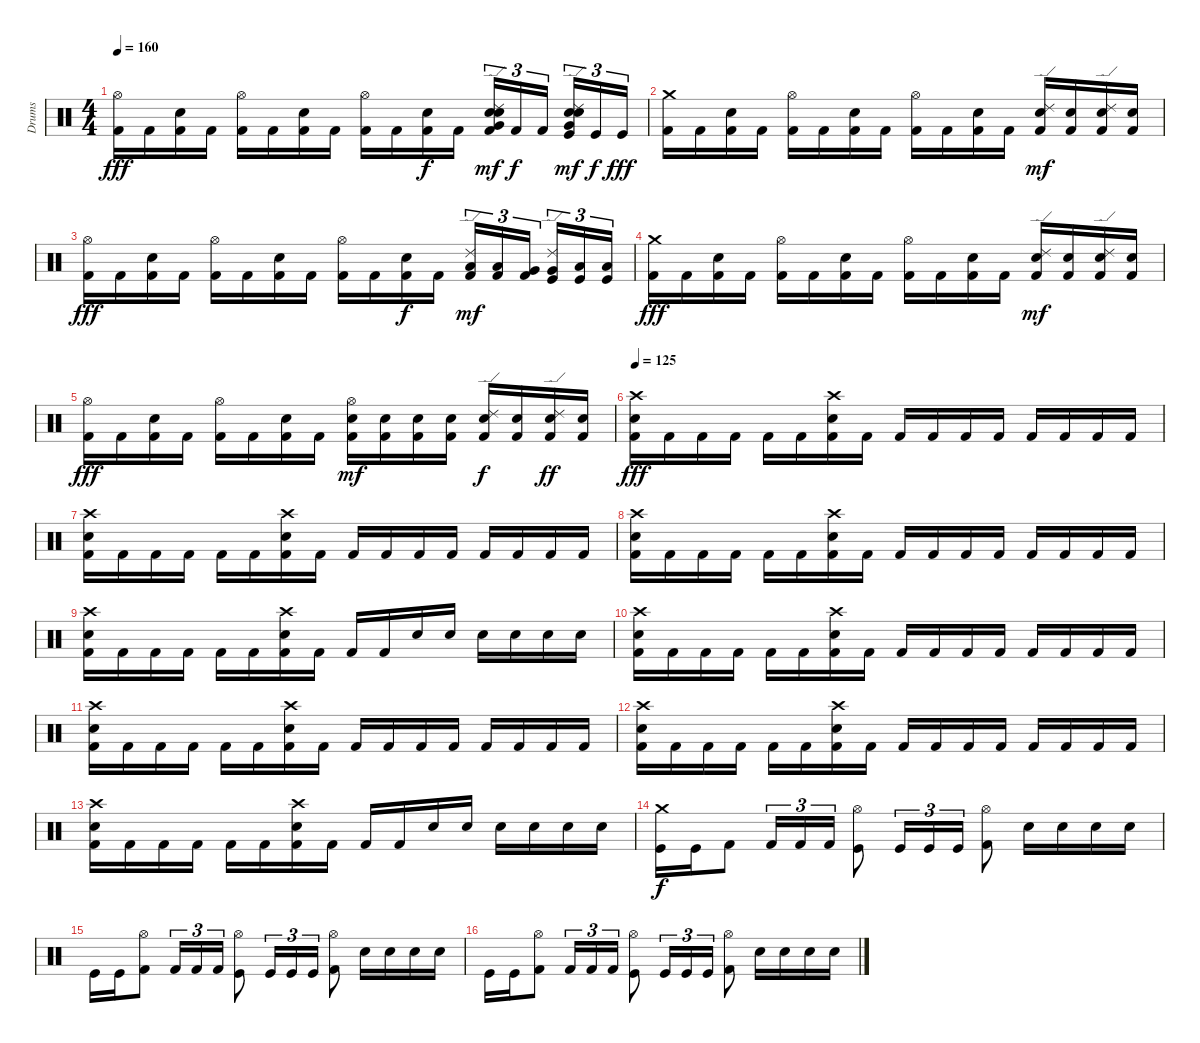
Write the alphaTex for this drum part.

\track ("Drums" "Drums") {instrument percussion}
\staff {score}
\articulation defaults
\ts (4 4)
\tempo 160
\clef neutral
\ks c
("Hi-Hat (open)" "Kick (hit) 2").16{dy fff} "Kick (hit) 2".16 ("Snare (hit) 2" "Kick (hit) 2").16 "Kick (hit) 2".16 ("Hi-Hat (open)" "Kick (hit) 2").16 "Kick (hit) 2".16 ("Snare (hit) 2" "Kick (hit) 2").16 "Kick (hit) 2".16 ("Hi-Hat (open)" "Kick (hit) 2").16 "Kick (hit) 2".16 ("Snare (hit) 2" "Kick (hit) 2").16{dy f} "Kick (hit) 2".16 ("Ride (edge) 2" "Electric Snare (hit)" "Electric Snare (hit)" "Very Low Tom (hit)" "Kick (hit) 2").16{tu (3 2) dy mf} "Kick (hit) 2".16{tu (3 2) dy f} "Kick (hit) 2".16{tu (3 2)} ("Ride (edge) 2" "Electric Snare (hit)" "Electric Snare (hit)" "Very Low Tom (hit)" "Kick (hit)").16{tu (3 2) dy mf} "Kick (hit)".16{tu (3 2) dy f} "Kick (hit)".16{tu (3 2) dy fff} |
("Crash medium (hit)" "Kick (hit) 2").16 "Kick (hit) 2".16 ("Snare (hit) 2" "Kick (hit) 2").16 "Kick (hit) 2".16 ("Hi-Hat (open)" "Kick (hit) 2").16 "Kick (hit) 2".16 ("Snare (hit) 2" "Kick (hit) 2").16 "Kick (hit) 2".16 ("Hi-Hat (open)" "Kick (hit) 2").16 "Kick (hit) 2".16 ("Snare (hit) 2" "Kick (hit) 2").16 "Kick (hit) 2".16 ("Ride (edge) 2" "Snare (hit) 2" "Kick (hit) 2").16{dy mf} ("Snare (hit) 2" "Kick (hit) 2").16 ("Ride (edge) 2" "Snare (hit) 2" "Kick (hit) 2").16 ("Snare (hit) 2" "Kick (hit) 2").16 |
("Hi-Hat (open)" "Kick (hit) 2").16{dy fff} "Kick (hit) 2".16 ("Snare (hit) 2" "Kick (hit) 2").16 "Kick (hit) 2".16 ("Hi-Hat (open)" "Kick (hit) 2").16 "Kick (hit) 2".16 ("Snare (hit) 2" "Kick (hit) 2").16 "Kick (hit) 2".16 ("Hi-Hat (open)" "Kick (hit) 2").16 "Kick (hit) 2".16 ("Snare (hit) 2" "Kick (hit) 2").16{dy f} "Kick (hit) 2".16 ("Ride (edge) 2" "Low Tom (hit)" "Kick (hit) 2").16{tu (3 2) dy mf} ("Low Tom (hit)" "Kick (hit) 2").16{tu (3 2)} ("Very Low Tom (hit)" "Kick (hit) 2").16{tu (3 2)} ("Ride (edge) 2" "Very Low Tom (hit)" "Kick (hit)").16{tu (3 2)} ("Low Floor Tom (hit)" "Kick (hit)").16{tu (3 2)} ("Low Floor Tom (hit)" "Kick (hit)").16{tu (3 2)} |
("Crash medium (hit)" "Kick (hit) 2").16{dy fff} "Kick (hit) 2".16 ("Snare (hit) 2" "Kick (hit) 2").16 "Kick (hit) 2".16 ("Hi-Hat (open)" "Kick (hit) 2").16 "Kick (hit) 2".16 ("Snare (hit) 2" "Kick (hit) 2").16 "Kick (hit) 2".16 ("Hi-Hat (open)" "Kick (hit) 2").16 "Kick (hit) 2".16 ("Snare (hit) 2" "Kick (hit) 2").16 "Kick (hit) 2".16 ("Ride (edge) 2" "Snare (hit) 2" "Kick (hit) 2").16{dy mf} ("Snare (hit) 2" "Kick (hit) 2").16 ("Ride (edge) 2" "Snare (hit) 2" "Kick (hit) 2").16 ("Snare (hit) 2" "Kick (hit) 2").16 |
("Hi-Hat (open)" "Kick (hit) 2").16{dy fff} "Kick (hit) 2".16 ("Snare (hit) 2" "Kick (hit) 2").16 "Kick (hit) 2".16 ("Hi-Hat (open)" "Kick (hit) 2").16 "Kick (hit) 2".16 ("Snare (hit) 2" "Kick (hit) 2").16 "Kick (hit) 2".16 ("Hi-Hat (open)" "Snare (hit) 2" "Kick (hit) 2").16{dy mf} ("Snare (hit) 2" "Kick (hit) 2").16 ("Snare (hit) 2" "Kick (hit) 2").16 ("Snare (hit) 2" "Kick (hit) 2").16 ("Ride (edge) 2" "Snare (hit) 2" "Kick (hit) 2").16{dy f} ("Snare (hit) 2" "Kick (hit) 2").16 ("Ride (edge) 2" "Snare (hit) 2" "Kick (hit) 2").16{dy ff} ("Snare (hit) 2" "Kick (hit) 2").16 |
\tempo 125
("Crash high (hit)" "Electric Snare (hit)" "Kick (hit) 2").16{dy fff} "Kick (hit) 2".16 "Kick (hit) 2".16 "Kick (hit) 2".16 "Kick (hit) 2".16 "Kick (hit) 2".16 ("Crash high (hit)" "Snare (hit) 2" "Kick (hit) 2").16 "Kick (hit) 2".16 "Kick (hit) 2".16 "Kick (hit) 2".16 "Kick (hit) 2".16 "Kick (hit) 2".16 "Kick (hit) 2".16 "Kick (hit) 2".16 "Kick (hit) 2".16 "Kick (hit) 2".16 |
("Crash high (hit)" "Snare (hit) 2" "Kick (hit) 2").16 "Kick (hit) 2".16 "Kick (hit) 2".16 "Kick (hit) 2".16 "Kick (hit) 2".16 "Kick (hit) 2".16 ("Crash high (hit)" "Snare (hit) 2" "Kick (hit) 2").16 "Kick (hit) 2".16 "Kick (hit) 2".16 "Kick (hit) 2".16 "Kick (hit) 2".16 "Kick (hit) 2".16 "Kick (hit) 2".16 "Kick (hit) 2".16 "Kick (hit) 2".16 "Kick (hit) 2".16 |
("Crash high (hit)" "Snare (hit) 2" "Kick (hit) 2").16 "Kick (hit) 2".16 "Kick (hit) 2".16 "Kick (hit) 2".16 "Kick (hit) 2".16 "Kick (hit) 2".16 ("Crash high (hit)" "Snare (hit) 2" "Kick (hit) 2").16 "Kick (hit) 2".16 "Kick (hit) 2".16 "Kick (hit) 2".16 "Kick (hit) 2".16 "Kick (hit) 2".16 "Kick (hit) 2".16 "Kick (hit) 2".16 "Kick (hit) 2".16 "Kick (hit) 2".16 |
("Crash high (hit)" "Snare (hit) 2" "Kick (hit) 2").16 "Kick (hit) 2".16 "Kick (hit) 2".16 "Kick (hit) 2".16 "Kick (hit) 2".16 "Kick (hit) 2".16 ("Crash high (hit)" "Snare (hit) 2" "Kick (hit) 2").16 "Kick (hit) 2".16 "Kick (hit) 2".16 "Kick (hit) 2".16 "Snare (hit) 2".16 "Snare (hit) 2".16 "Snare (hit) 2".16 "Snare (hit) 2".16 "Snare (hit) 2".16 "Snare (hit) 2".16 |
("Crash high (hit)" "Snare (hit) 2" "Kick (hit) 2").16 "Kick (hit) 2".16 "Kick (hit) 2".16 "Kick (hit) 2".16 "Kick (hit) 2".16 "Kick (hit) 2".16 ("Crash high (hit)" "Snare (hit) 2" "Kick (hit) 2").16 "Kick (hit) 2".16 "Kick (hit) 2".16 "Kick (hit) 2".16 "Kick (hit) 2".16 "Kick (hit) 2".16 "Kick (hit) 2".16 "Kick (hit) 2".16 "Kick (hit) 2".16 "Kick (hit) 2".16 |
("Crash high (hit)" "Snare (hit) 2" "Kick (hit) 2").16 "Kick (hit) 2".16 "Kick (hit) 2".16 "Kick (hit) 2".16 "Kick (hit) 2".16 "Kick (hit) 2".16 ("Crash high (hit)" "Snare (hit) 2" "Kick (hit) 2").16 "Kick (hit) 2".16 "Kick (hit) 2".16 "Kick (hit) 2".16 "Kick (hit) 2".16 "Kick (hit) 2".16 "Kick (hit) 2".16 "Kick (hit) 2".16 "Kick (hit) 2".16 "Kick (hit) 2".16 |
("Crash high (hit)" "Snare (hit) 2" "Kick (hit) 2").16 "Kick (hit) 2".16 "Kick (hit) 2".16 "Kick (hit) 2".16 "Kick (hit) 2".16 "Kick (hit) 2".16 ("Crash high (hit)" "Snare (hit) 2" "Kick (hit) 2").16 "Kick (hit) 2".16 "Kick (hit) 2".16 "Kick (hit) 2".16 "Kick (hit) 2".16 "Kick (hit) 2".16 "Kick (hit) 2".16 "Kick (hit) 2".16 "Kick (hit) 2".16 "Kick (hit) 2".16 |
("Crash high (hit)" "Snare (hit) 2" "Kick (hit) 2").16 "Kick (hit) 2".16 "Kick (hit) 2".16 "Kick (hit) 2".16 "Kick (hit) 2".16 "Kick (hit) 2".16 ("Crash high (hit)" "Snare (hit) 2" "Kick (hit) 2").16 "Kick (hit) 2".16 "Kick (hit) 2".16 "Kick (hit) 2".16 "Snare (hit) 2".16 "Snare (hit) 2".16 "Snare (hit) 2".16 "Snare (hit) 2".16 "Snare (hit) 2".16 "Snare (hit) 2".16 |
("Crash medium (hit)" "Kick (hit)").16{dy f} "Kick (hit)".16 "Kick (hit) 2".8 "Kick (hit) 2".16{tu (3 2)} "Kick (hit) 2".16{tu (3 2)} "Kick (hit) 2".16{tu (3 2)} ("Hi-Hat (open)" "Kick (hit)").8 "Kick (hit)".16{tu (3 2)} "Kick (hit)".16{tu (3 2)} "Kick (hit)".16{tu (3 2)} ("Hi-Hat (open)" "Kick (hit) 2").8 "Snare (hit) 2".16 "Snare (hit) 2".16 "Snare (hit) 2".16 "Snare (hit) 2".16 |
"Kick (hit)".16 "Kick (hit)".16 ("Hi-Hat (open)" "Kick (hit) 2").8 "Kick (hit) 2".16{tu (3 2)} "Kick (hit) 2".16{tu (3 2)} "Kick (hit) 2".16{tu (3 2)} ("Hi-Hat (open)" "Kick (hit)").8 "Kick (hit)".16{tu (3 2)} "Kick (hit)".16{tu (3 2)} "Kick (hit)".16{tu (3 2)} ("Hi-Hat (open)" "Kick (hit) 2").8 "Snare (hit) 2".16 "Snare (hit) 2".16 "Snare (hit) 2".16 "Snare (hit) 2".16 |
"Kick (hit)".16 "Kick (hit)".16 ("Hi-Hat (open)" "Kick (hit) 2").8 "Kick (hit) 2".16{tu (3 2)} "Kick (hit) 2".16{tu (3 2)} "Kick (hit) 2".16{tu (3 2)} ("Hi-Hat (open)" "Kick (hit)").8 "Kick (hit)".16{tu (3 2)} "Kick (hit)".16{tu (3 2)} "Kick (hit)".16{tu (3 2)} ("Hi-Hat (open)" "Kick (hit) 2").8 "Snare (hit) 2".16 "Snare (hit) 2".16 "Snare (hit) 2".16 "Snare (hit) 2".16
